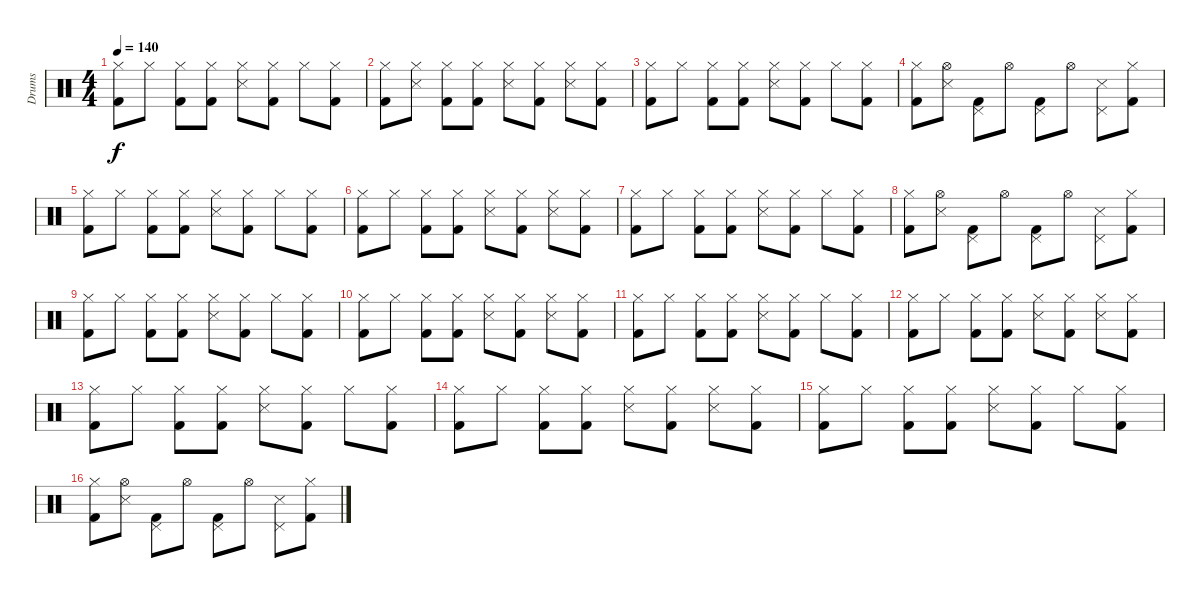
\track ("Drums" "Drums") {instrument percussion}
\staff {score}
\articulation defaults
\ts (4 4)
\tempo 140
\clef neutral
\ks c
("Kick (hit) 2" "Hi-Hat (closed)").8{dy f} "Hi-Hat (closed)".8 ("Kick (hit) 2" "Hi-Hat (closed)").8 ("Kick (hit) 2" "Hi-Hat (closed)").8 ("Snare (side stick) 3" "Hi-Hat (closed)").8 ("Kick (hit) 2" "Hi-Hat (closed)").8 "Hi-Hat (closed)".8 ("Kick (hit) 2" "Hi-Hat (closed)").8 |
("Kick (hit) 2" "Hi-Hat (closed)").8 ("Snare (side stick) 3" "Hi-Hat (closed)").8 ("Kick (hit) 2" "Hi-Hat (closed)").8 ("Kick (hit) 2" "Hi-Hat (closed)").8 ("Snare (side stick) 3" "Hi-Hat (closed)").8 ("Kick (hit) 2" "Hi-Hat (closed)").8 ("Snare (side stick) 3" "Hi-Hat (closed)").8 ("Kick (hit) 2" "Hi-Hat (closed)").8 |
("Kick (hit) 2" "Hi-Hat (closed)").8 "Hi-Hat (closed)".8 ("Kick (hit) 2" "Hi-Hat (closed)").8 ("Kick (hit) 2" "Hi-Hat (closed)").8 ("Snare (side stick) 3" "Hi-Hat (closed)").8 ("Kick (hit) 2" "Hi-Hat (closed)").8 "Hi-Hat (closed)".8 ("Kick (hit) 2" "Hi-Hat (closed)").8 |
("Kick (hit) 2" "Hi-Hat (closed)").8 ("Snare (side stick) 3" "Hi-Hat (open)").8 ("Kick (hit) 2" "Pedal Hi-Hat (hit)").8 "Hi-Hat (open)".8 ("Kick (hit) 2" "Pedal Hi-Hat (hit)").8 "Hi-Hat (open)".8 ("Snare (side stick) 3" "Pedal Hi-Hat (hit)").8 ("Kick (hit) 2" "Hi-Hat (closed)").8 |
("Kick (hit) 2" "Hi-Hat (closed)").8 "Hi-Hat (closed)".8 ("Kick (hit) 2" "Hi-Hat (closed)").8 ("Kick (hit) 2" "Hi-Hat (closed)").8 ("Snare (side stick) 3" "Hi-Hat (closed)").8 ("Kick (hit) 2" "Hi-Hat (closed)").8 "Hi-Hat (closed)".8 ("Kick (hit) 2" "Hi-Hat (closed)").8 |
("Kick (hit) 2" "Hi-Hat (closed)").8 "Hi-Hat (closed)".8 ("Kick (hit) 2" "Hi-Hat (closed)").8 ("Kick (hit) 2" "Hi-Hat (closed)").8 ("Snare (side stick) 3" "Hi-Hat (closed)").8 ("Kick (hit) 2" "Hi-Hat (closed)").8 ("Snare (side stick) 3" "Hi-Hat (closed)").8 ("Kick (hit) 2" "Hi-Hat (closed)").8 |
("Kick (hit) 2" "Hi-Hat (closed)").8 "Hi-Hat (closed)".8 ("Kick (hit) 2" "Hi-Hat (closed)").8 ("Kick (hit) 2" "Hi-Hat (closed)").8 ("Snare (side stick) 3" "Hi-Hat (closed)").8 ("Kick (hit) 2" "Hi-Hat (closed)").8 "Hi-Hat (closed)".8 ("Kick (hit) 2" "Hi-Hat (closed)").8 |
("Kick (hit) 2" "Hi-Hat (closed)").8 ("Snare (side stick) 3" "Hi-Hat (open)").8 ("Kick (hit) 2" "Pedal Hi-Hat (hit)").8 "Hi-Hat (open)".8 ("Kick (hit) 2" "Pedal Hi-Hat (hit)").8 "Hi-Hat (open)".8 ("Snare (side stick) 3" "Pedal Hi-Hat (hit)").8 ("Kick (hit) 2" "Hi-Hat (closed)").8 |
("Kick (hit) 2" "Hi-Hat (closed)").8 "Hi-Hat (closed)".8 ("Kick (hit) 2" "Hi-Hat (closed)").8 ("Kick (hit) 2" "Hi-Hat (closed)").8 ("Snare (side stick) 3" "Hi-Hat (closed)").8 ("Kick (hit) 2" "Hi-Hat (closed)").8 "Hi-Hat (closed)".8 ("Kick (hit) 2" "Hi-Hat (closed)").8 |
("Kick (hit) 2" "Hi-Hat (closed)").8 "Hi-Hat (closed)".8 ("Kick (hit) 2" "Hi-Hat (closed)").8 ("Kick (hit) 2" "Hi-Hat (closed)").8 ("Snare (side stick) 3" "Hi-Hat (closed)").8 ("Kick (hit) 2" "Hi-Hat (closed)").8 ("Snare (side stick) 3" "Hi-Hat (closed)").8 ("Kick (hit) 2" "Hi-Hat (closed)").8 |
("Kick (hit) 2" "Hi-Hat (closed)").8 "Hi-Hat (closed)".8 ("Kick (hit) 2" "Hi-Hat (closed)").8 ("Kick (hit) 2" "Hi-Hat (closed)").8 ("Snare (side stick) 3" "Hi-Hat (closed)").8 ("Kick (hit) 2" "Hi-Hat (closed)").8 "Hi-Hat (closed)".8 ("Kick (hit) 2" "Hi-Hat (closed)").8 |
("Kick (hit) 2" "Hi-Hat (closed)").8 "Hi-Hat (closed)".8 ("Kick (hit) 2" "Hi-Hat (closed)").8 ("Kick (hit) 2" "Hi-Hat (closed)").8 ("Snare (side stick) 3" "Hi-Hat (closed)").8 ("Kick (hit) 2" "Hi-Hat (closed)").8 ("Snare (side stick) 3" "Hi-Hat (closed)").8 ("Kick (hit) 2" "Hi-Hat (closed)").8 |
("Kick (hit) 2" "Hi-Hat (closed)").8 "Hi-Hat (closed)".8 ("Kick (hit) 2" "Hi-Hat (closed)").8 ("Kick (hit) 2" "Hi-Hat (closed)").8 ("Snare (side stick) 3" "Hi-Hat (closed)").8 ("Kick (hit) 2" "Hi-Hat (closed)").8 "Hi-Hat (closed)".8 ("Kick (hit) 2" "Hi-Hat (closed)").8 |
("Kick (hit) 2" "Hi-Hat (closed)").8 "Hi-Hat (closed)".8 ("Kick (hit) 2" "Hi-Hat (closed)").8 ("Kick (hit) 2" "Hi-Hat (closed)").8 ("Snare (side stick) 3" "Hi-Hat (closed)").8 ("Kick (hit) 2" "Hi-Hat (closed)").8 ("Snare (side stick) 3" "Hi-Hat (closed)").8 ("Kick (hit) 2" "Hi-Hat (closed)").8 |
("Kick (hit) 2" "Hi-Hat (closed)").8 "Hi-Hat (closed)".8 ("Kick (hit) 2" "Hi-Hat (closed)").8 ("Kick (hit) 2" "Hi-Hat (closed)").8 ("Snare (side stick) 3" "Hi-Hat (closed)").8 ("Kick (hit) 2" "Hi-Hat (closed)").8 "Hi-Hat (closed)".8 ("Kick (hit) 2" "Hi-Hat (closed)").8 |
("Kick (hit) 2" "Hi-Hat (closed)").8 ("Snare (side stick) 3" "Hi-Hat (open)").8 ("Kick (hit) 2" "Pedal Hi-Hat (hit)").8 "Hi-Hat (open)".8 ("Kick (hit) 2" "Pedal Hi-Hat (hit)").8 "Hi-Hat (open)".8 ("Snare (side stick) 3" "Pedal Hi-Hat (hit)").8 ("Kick (hit) 2" "Hi-Hat (closed)").8
